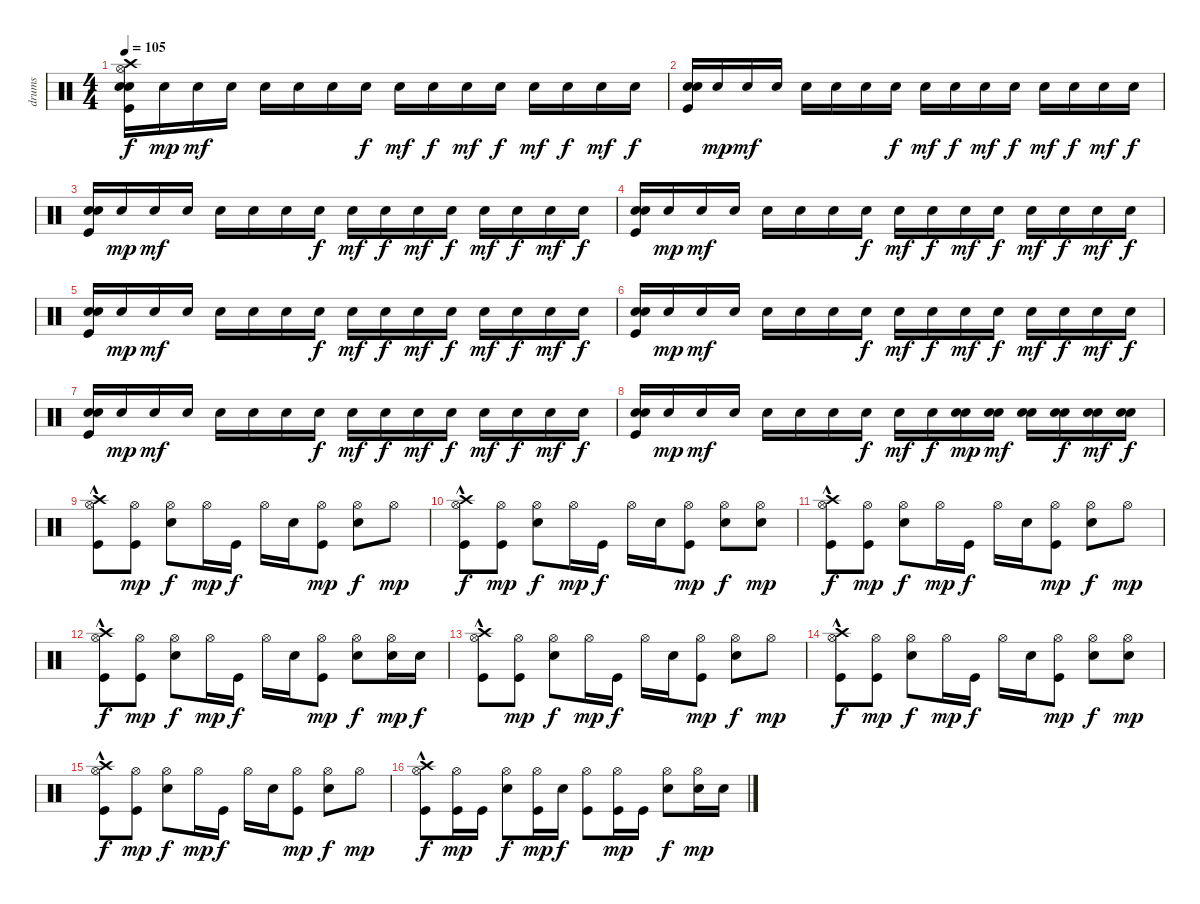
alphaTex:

\track ("drums" "drums") {instrument percussion}
\staff {score}
\articulation defaults
\ts (4 4)
\tempo 105
\clef neutral
\ks c
("Kick (hit)" "Snare (hit) 2" "Electric Snare (hit)" "Hi-Hat (open)" "Crash high (hit)").16{dy f} "Electric Snare (hit)".16{dy mp} "Electric Snare (hit)".16{dy mf} "Electric Snare (hit)".16 "Electric Snare (hit)".16 "Electric Snare (hit)".16 "Electric Snare (hit)".16 "Electric Snare (hit)".16{dy f} "Electric Snare (hit)".16{dy mf} "Electric Snare (hit)".16{dy f} "Electric Snare (hit)".16{dy mf} "Electric Snare (hit)".16{dy f} "Electric Snare (hit)".16{dy mf} "Electric Snare (hit)".16{dy f} "Electric Snare (hit)".16{dy mf} "Electric Snare (hit)".16{dy f} |
("Kick (hit)" "Snare (hit) 2" "Electric Snare (hit)").16 "Electric Snare (hit)".16{dy mp} "Electric Snare (hit)".16{dy mf} "Electric Snare (hit)".16 "Electric Snare (hit)".16 "Electric Snare (hit)".16 "Electric Snare (hit)".16 "Electric Snare (hit)".16{dy f} "Electric Snare (hit)".16{dy mf} "Electric Snare (hit)".16{dy f} "Electric Snare (hit)".16{dy mf} "Electric Snare (hit)".16{dy f} "Electric Snare (hit)".16{dy mf} "Electric Snare (hit)".16{dy f} "Electric Snare (hit)".16{dy mf} "Electric Snare (hit)".16{dy f} |
("Kick (hit)" "Snare (hit) 2" "Electric Snare (hit)").16 "Electric Snare (hit)".16{dy mp} "Electric Snare (hit)".16{dy mf} "Electric Snare (hit)".16 "Electric Snare (hit)".16 "Electric Snare (hit)".16 "Electric Snare (hit)".16 "Electric Snare (hit)".16{dy f} "Electric Snare (hit)".16{dy mf} "Electric Snare (hit)".16{dy f} "Electric Snare (hit)".16{dy mf} "Electric Snare (hit)".16{dy f} "Electric Snare (hit)".16{dy mf} "Electric Snare (hit)".16{dy f} "Electric Snare (hit)".16{dy mf} "Electric Snare (hit)".16{dy f} |
("Kick (hit)" "Snare (hit) 2" "Electric Snare (hit)").16 "Electric Snare (hit)".16{dy mp} "Electric Snare (hit)".16{dy mf} "Electric Snare (hit)".16 "Electric Snare (hit)".16 "Electric Snare (hit)".16 "Electric Snare (hit)".16 "Electric Snare (hit)".16{dy f} "Electric Snare (hit)".16{dy mf} "Electric Snare (hit)".16{dy f} "Electric Snare (hit)".16{dy mf} "Electric Snare (hit)".16{dy f} "Electric Snare (hit)".16{dy mf} "Electric Snare (hit)".16{dy f} "Electric Snare (hit)".16{dy mf} "Electric Snare (hit)".16{dy f} |
("Kick (hit)" "Snare (hit) 2" "Electric Snare (hit)").16 "Electric Snare (hit)".16{dy mp} "Electric Snare (hit)".16{dy mf} "Electric Snare (hit)".16 "Electric Snare (hit)".16 "Electric Snare (hit)".16 "Electric Snare (hit)".16 "Electric Snare (hit)".16{dy f} "Electric Snare (hit)".16{dy mf} "Electric Snare (hit)".16{dy f} "Electric Snare (hit)".16{dy mf} "Electric Snare (hit)".16{dy f} "Electric Snare (hit)".16{dy mf} "Electric Snare (hit)".16{dy f} "Electric Snare (hit)".16{dy mf} "Electric Snare (hit)".16{dy f} |
("Kick (hit)" "Snare (hit) 2" "Electric Snare (hit)").16 "Electric Snare (hit)".16{dy mp} "Electric Snare (hit)".16{dy mf} "Electric Snare (hit)".16 "Electric Snare (hit)".16 "Electric Snare (hit)".16 "Electric Snare (hit)".16 "Electric Snare (hit)".16{dy f} "Electric Snare (hit)".16{dy mf} "Electric Snare (hit)".16{dy f} "Electric Snare (hit)".16{dy mf} "Electric Snare (hit)".16{dy f} "Electric Snare (hit)".16{dy mf} "Electric Snare (hit)".16{dy f} "Electric Snare (hit)".16{dy mf} "Electric Snare (hit)".16{dy f} |
("Kick (hit)" "Snare (hit) 2" "Electric Snare (hit)").16 "Electric Snare (hit)".16{dy mp} "Electric Snare (hit)".16{dy mf} "Electric Snare (hit)".16 "Electric Snare (hit)".16 "Electric Snare (hit)".16 "Electric Snare (hit)".16 "Electric Snare (hit)".16{dy f} "Electric Snare (hit)".16{dy mf} "Electric Snare (hit)".16{dy f} "Electric Snare (hit)".16{dy mf} "Electric Snare (hit)".16{dy f} "Electric Snare (hit)".16{dy mf} "Electric Snare (hit)".16{dy f} "Electric Snare (hit)".16{dy mf} "Electric Snare (hit)".16{dy f} |
("Kick (hit)" "Snare (hit) 2" "Electric Snare (hit)").16 "Electric Snare (hit)".16{dy mp} "Electric Snare (hit)".16{dy mf} "Electric Snare (hit)".16 "Electric Snare (hit)".16 "Electric Snare (hit)".16 "Electric Snare (hit)".16 "Electric Snare (hit)".16{dy f} "Electric Snare (hit)".16{dy mf} "Electric Snare (hit)".16{dy f} ("Electric Snare (hit)" "Snare (hit) 2").16{dy mp} ("Electric Snare (hit)" "Snare (hit) 2").16{dy mf} ("Electric Snare (hit)" "Snare (hit) 2").16 ("Electric Snare (hit)" "Snare (hit) 2").16{dy f} ("Electric Snare (hit)" "Snare (hit) 2").16{dy mf} ("Electric Snare (hit)" "Snare (hit) 2").16{dy f} |
("Kick (hit)" "Crash high (hit)"{hac} "Hi-Hat (open)").8 ("Kick (hit)" "Hi-Hat (open)").8{dy mp} ("Snare (hit) 2" "Hi-Hat (open)").8{dy f} "Hi-Hat (open)".16{dy mp} "Kick (hit)".16{dy f} "Hi-Hat (open)".16 "Snare (hit) 2".16 ("Kick (hit)" "Hi-Hat (open)").8{dy mp} ("Snare (hit) 2" "Hi-Hat (open)").8{dy f} "Hi-Hat (open)".8{dy mp} |
("Hi-Hat (open)" "Crash high (hit)"{hac} "Kick (hit)").8{dy f} ("Kick (hit)" "Hi-Hat (open)").8{dy mp} ("Snare (hit) 2" "Hi-Hat (open)").8{dy f} "Hi-Hat (open)".16{dy mp} "Kick (hit)".16{dy f} "Hi-Hat (open)".16 "Snare (hit) 2".16 ("Kick (hit)" "Hi-Hat (open)").8{dy mp} ("Snare (hit) 2" "Hi-Hat (open)").8{dy f} ("Hi-Hat (open)" "Snare (hit) 2").8{dy mp} |
("Hi-Hat (open)" "Crash high (hit)"{hac} "Kick (hit)").8{dy f} ("Kick (hit)" "Hi-Hat (open)").8{dy mp} ("Snare (hit) 2" "Hi-Hat (open)").8{dy f} "Hi-Hat (open)".16{dy mp} "Kick (hit)".16{dy f} "Hi-Hat (open)".16 "Snare (hit) 2".16 ("Kick (hit)" "Hi-Hat (open)").8{dy mp} ("Snare (hit) 2" "Hi-Hat (open)").8{dy f} "Hi-Hat (open)".8{dy mp} |
("Hi-Hat (open)" "Crash high (hit)"{hac} "Kick (hit)").8{dy f} ("Kick (hit)" "Hi-Hat (open)").8{dy mp} ("Snare (hit) 2" "Hi-Hat (open)").8{dy f} "Hi-Hat (open)".16{dy mp} "Kick (hit)".16{dy f} "Hi-Hat (open)".16 "Snare (hit) 2".16 ("Kick (hit)" "Hi-Hat (open)").8{dy mp} ("Snare (hit) 2" "Hi-Hat (open)").8{dy f} ("Hi-Hat (open)" "Snare (hit) 2").16{dy mp} "Snare (hit) 2".16{dy f} |
("Hi-Hat (open)" "Crash high (hit)"{hac} "Kick (hit)").8 ("Kick (hit)" "Hi-Hat (open)").8{dy mp} ("Snare (hit) 2" "Hi-Hat (open)").8{dy f} "Hi-Hat (open)".16{dy mp} "Kick (hit)".16{dy f} "Hi-Hat (open)".16 "Snare (hit) 2".16 ("Kick (hit)" "Hi-Hat (open)").8{dy mp} ("Snare (hit) 2" "Hi-Hat (open)").8{dy f} "Hi-Hat (open)".8{dy mp} |
("Hi-Hat (open)" "Crash high (hit)"{hac} "Kick (hit)").8{dy f} ("Kick (hit)" "Hi-Hat (open)").8{dy mp} ("Snare (hit) 2" "Hi-Hat (open)").8{dy f} "Hi-Hat (open)".16{dy mp} "Kick (hit)".16{dy f} "Hi-Hat (open)".16 "Snare (hit) 2".16 ("Kick (hit)" "Hi-Hat (open)").8{dy mp} ("Snare (hit) 2" "Hi-Hat (open)").8{dy f} ("Hi-Hat (open)" "Snare (hit) 2").8{dy mp} |
("Hi-Hat (open)" "Crash high (hit)"{hac} "Kick (hit)").8{dy f} ("Kick (hit)" "Hi-Hat (open)").8{dy mp} ("Snare (hit) 2" "Hi-Hat (open)").8{dy f} "Hi-Hat (open)".16{dy mp} "Kick (hit)".16{dy f} "Hi-Hat (open)".16 "Snare (hit) 2".16 ("Kick (hit)" "Hi-Hat (open)").8{dy mp} ("Snare (hit) 2" "Hi-Hat (open)").8{dy f} "Hi-Hat (open)".8{dy mp} |
("Hi-Hat (open)" "Crash high (hit)"{hac} "Kick (hit)").8{dy f} ("Kick (hit)" "Hi-Hat (open)").16{dy mp} "Kick (hit)".16 ("Snare (hit) 2" "Hi-Hat (open)").8{dy f} ("Hi-Hat (open)" "Kick (hit)").16{dy mp} "Snare (hit) 2".16{dy f} ("Hi-Hat (open)" "Kick (hit)").8 ("Kick (hit)" "Hi-Hat (open)").16{dy mp} "Kick (hit)".16 ("Snare (hit) 2" "Hi-Hat (open)").8{dy f} ("Hi-Hat (open)" "Snare (hit) 2").16{dy mp} "Snare (hit) 2".16
